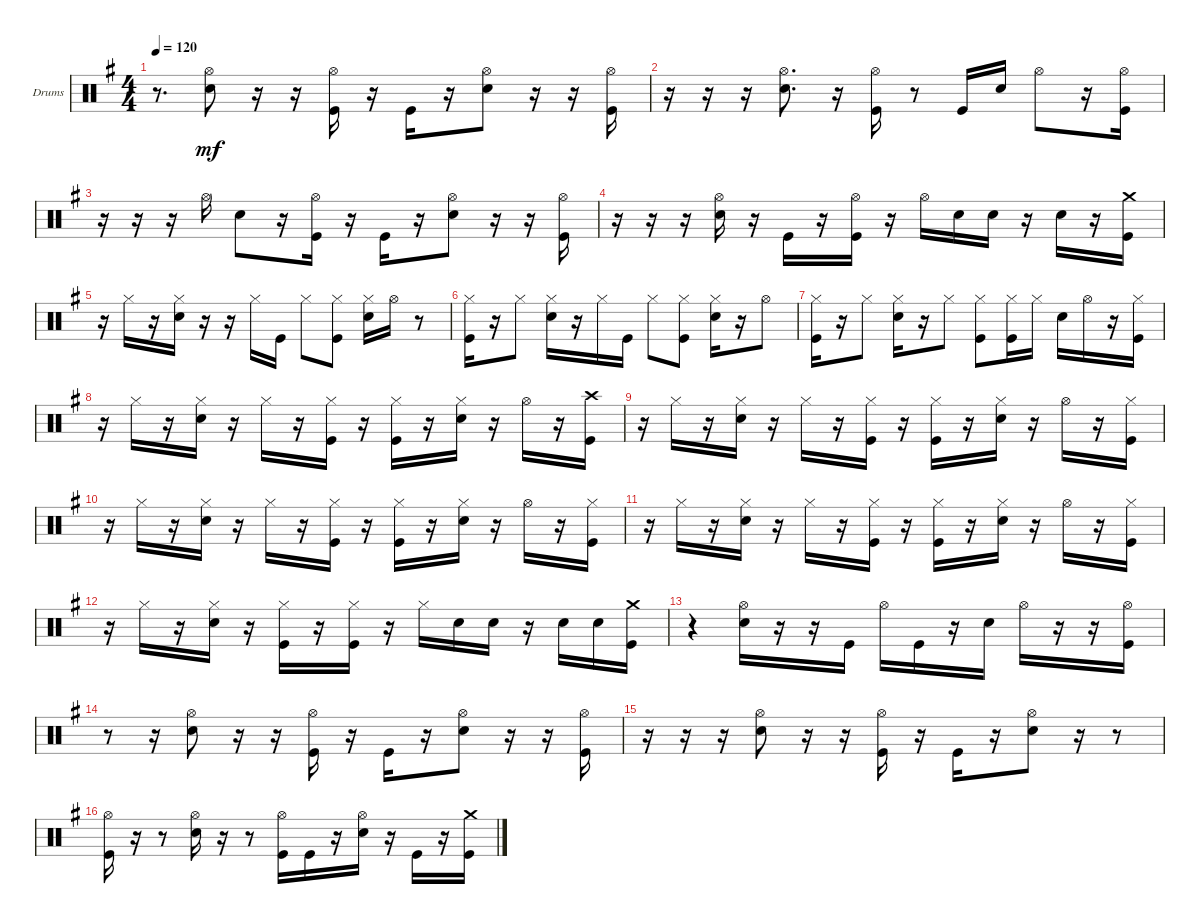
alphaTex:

\bracketExtendMode groupsimilarinstruments
\firstSystemTrackNameOrientation horizontal
\otherSystemsTrackNameOrientation horizontal
\track ("Drumkit" "Drums") {multiBarRest instrument percussion}
\staff {score}
\articulation defaults
\ts (4 4)
\tempo 120
\clef neutral
\scale
0.333333
\ks g
r.8{d dy mf} ("Hi-Hat (open)" "Snare (hit) 2").8 r.16 r.16 ("Hi-Hat (open)" "Kick (hit)").16 r.16 "Kick (hit)".16 r.16 ("Hi-Hat (open)" "Snare (hit) 2").8 r.16 r.16 ("Kick (hit)" "Hi-Hat (open)").16 |
\scale
0.333333 r.16 r.16 r.16 ("Hi-Hat (open)" "Snare (hit) 2").8{d} r.16 ("Hi-Hat (open)" "Kick (hit)").16 r.8 "Kick (hit)".16 "Snare (hit) 2".16 "Hi-Hat (open)".8 r.16 ("Kick (hit)" "Hi-Hat (open)").16 |
\scale
0.333333 r.16 r.16 r.16 "Hi-Hat (open)".16 "Snare (hit) 2".8 r.16 ("Hi-Hat (open)" "Kick (hit)").16 r.16 "Kick (hit)".16 r.16 ("Hi-Hat (open)" "Snare (hit) 2").8 r.16 r.16 ("Kick (hit)" "Hi-Hat (open)").16 |
\scale
0.333333 r.16 r.16 r.16 ("Snare (hit) 2" "Hi-Hat (open)").16 r.16 "Kick (hit)".16 r.16 ("Kick (hit)" "Hi-Hat (open)").16 r.16 "Hi-Hat (open)".16 "Snare (hit) 2".16 "Snare (hit) 2".16 r.16 "Snare (hit) 2".16 r.16 ("Crash medium (hit)" "Kick (hit)").16 |
\scale
0.333333 r.16 "Hi-Hat (closed)".16 r.16 ("Snare (hit) 2" "Hi-Hat (closed)").16 r.16 r.16 "Hi-Hat (closed)".16 "Kick (hit)".16 "Hi-Hat (closed)".8 ("Kick (hit)" "Hi-Hat (closed)").8 ("Hi-Hat (closed)" "Snare (hit) 2").16 "Hi-Hat (open)".16 r.8 |
\scale
0.333333 ("Hi-Hat (closed)" "Kick (hit)").16 r.16 "Hi-Hat (closed)".8 ("Hi-Hat (closed)" "Snare (hit) 2").16 r.16 "Hi-Hat (closed)".16 "Kick (hit)".16 "Hi-Hat (closed)".8 ("Hi-Hat (closed)" "Kick (hit)").8 ("Hi-Hat (closed)" "Snare (hit) 2").16 r.16 "Hi-Hat (open)".8 |
\scale
0.333333 ("Hi-Hat (closed)" "Kick (hit)").16 r.16 "Hi-Hat (closed)".8 ("Hi-Hat (closed)" "Snare (hit) 2").16 r.16 "Hi-Hat (closed)".8 ("Hi-Hat (closed)" "Kick (hit)").8 ("Hi-Hat (closed)" "Kick (hit)").16 "Hi-Hat (closed)".16 "Snare (hit) 2".16 "Hi-Hat (open)".16 r.16 ("Hi-Hat (closed)" "Kick (hit)").16 |
\scale
0.333333 r.16 "Hi-Hat (closed)".16 r.16 ("Hi-Hat (closed)" "Snare (hit) 2").16 r.16 "Hi-Hat (closed)".16 r.16 ("Hi-Hat (closed)" "Kick (hit)").16 r.16 ("Kick (hit)" "Hi-Hat (closed)").16 r.16 ("Hi-Hat (closed)" "Snare (hit) 2").16 r.16 "Hi-Hat (open)".16 r.16 ("Crash high (hit)" "Kick (hit)").16 |
\scale
0.333333 r.16 "Hi-Hat (closed)".16 r.16 ("Hi-Hat (closed)" "Snare (hit) 2").16 r.16 "Hi-Hat (closed)".16 r.16 ("Hi-Hat (closed)" "Kick (hit)").16 r.16 ("Kick (hit)" "Hi-Hat (closed)").16 r.16 ("Hi-Hat (closed)" "Snare (hit) 2").16 r.16 "Hi-Hat (open)".16 r.16 ("Hi-Hat (closed)" "Kick (hit)").16 |
\scale
0.333333 r.16 "Hi-Hat (closed)".16 r.16 ("Hi-Hat (closed)" "Snare (hit) 2").16 r.16 "Hi-Hat (closed)".16 r.16 ("Kick (hit)" "Hi-Hat (closed)").16 r.16 ("Kick (hit)" "Hi-Hat (closed)").16 r.16 ("Snare (hit) 2" "Hi-Hat (closed)").16 r.16 "Hi-Hat (open)".16 r.16 ("Hi-Hat (closed)" "Kick (hit)").16 |
\scale
0.333333 r.16 "Hi-Hat (closed)".16 r.16 ("Hi-Hat (closed)" "Snare (hit) 2").16 r.16 "Hi-Hat (closed)".16 r.16 ("Hi-Hat (closed)" "Kick (hit)").16 r.16 ("Kick (hit)" "Hi-Hat (closed)").16 r.16 ("Hi-Hat (closed)" "Snare (hit) 2").16 r.16 "Hi-Hat (open)".16 r.16 ("Hi-Hat (closed)" "Kick (hit)").16 |
\scale
0.333333 r.16 "Hi-Hat (closed)".16 r.16 ("Snare (hit) 2" "Hi-Hat (closed)").16 r.16 ("Hi-Hat (closed)" "Kick (hit)").16 r.16 ("Hi-Hat (closed)" "Kick (hit)").16 r.16 "Hi-Hat (closed)".16 "Snare (hit) 2".16 "Snare (hit) 2".16 r.16 "Snare (hit) 2".16 "Snare (hit) 2".16 ("Kick (hit)" "Crash medium (hit)").16 |
\scale
0.333333 r.4 ("Hi-Hat (open)" "Snare (hit) 2").16 r.16 r.16 "Kick (hit)".16 "Hi-Hat (open)".16 "Kick (hit)".16 r.16 "Snare (hit) 2".16 "Hi-Hat (open)".16 r.16 r.16 ("Kick (hit)" "Hi-Hat (open)").16 |
\scale
0.333333 r.8 r.16 ("Snare (hit) 2" "Hi-Hat (open)").8 r.16 r.16 ("Hi-Hat (open)" "Kick (hit)").16 r.16 "Kick (hit)".16 r.16 ("Snare (hit) 2" "Hi-Hat (open)").8 r.16 r.16 ("Kick (hit)" "Hi-Hat (open)").16 |
\scale
0.333333 r.16 r.16 r.16 ("Hi-Hat (open)" "Snare (hit) 2").8 r.16 r.16 ("Kick (hit)" "Hi-Hat (open)").16 r.16 "Kick (hit)".16 r.16 ("Snare (hit) 2" "Hi-Hat (open)").8 r.16 r.8 |
\scale
0.333333 ("Kick (hit)" "Hi-Hat (open)").16 r.16 r.8 ("Snare (hit) 2" "Hi-Hat (open)").16 r.16 r.8 ("Kick (hit)" "Hi-Hat (open)").16 "Kick (hit)".16 r.16 ("Snare (hit) 2" "Hi-Hat (open)").16 r.16 "Kick (hit)".16 r.16 ("Kick (hit)" "Crash medium (hit)").16
